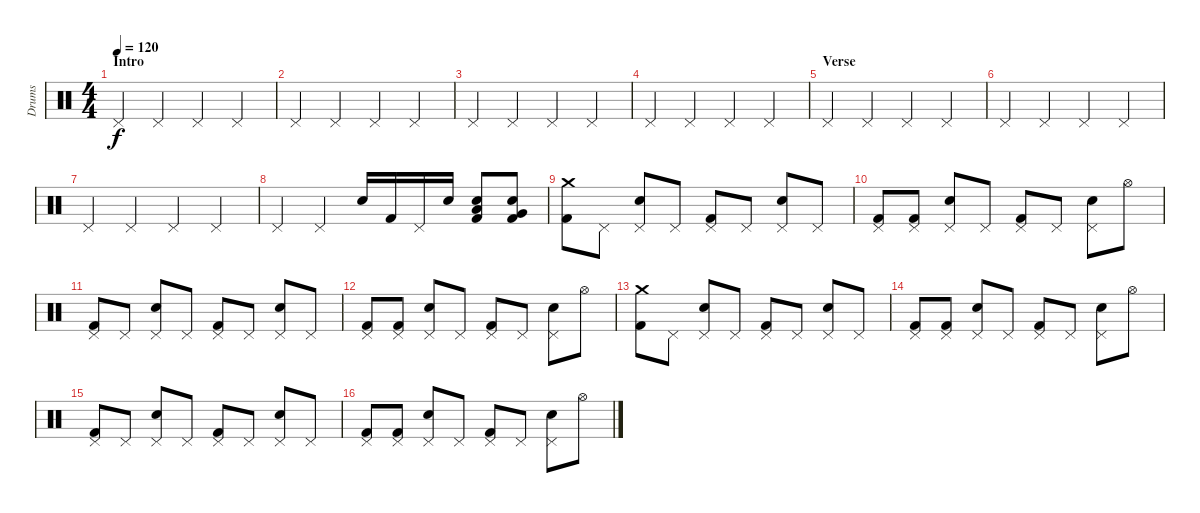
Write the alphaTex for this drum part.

\track ("Drums" "Drums") {instrument percussion}
\staff {score}
\articulation defaults
\ts (4 4)
\section ("" "Intro")
\tempo 120
\clef neutral
\ks c "Pedal Hi-Hat (hit)".4{dy f} "Pedal Hi-Hat (hit)".4 "Pedal Hi-Hat (hit)".4 "Pedal Hi-Hat (hit)".4
|
"Pedal Hi-Hat (hit)".4 "Pedal Hi-Hat (hit)".4 "Pedal Hi-Hat (hit)".4 "Pedal Hi-Hat (hit)".4 |
"Pedal Hi-Hat (hit)".4 "Pedal Hi-Hat (hit)".4 "Pedal Hi-Hat (hit)".4 "Pedal Hi-Hat (hit)".4 |
"Pedal Hi-Hat (hit)".4 "Pedal Hi-Hat (hit)".4 "Pedal Hi-Hat (hit)".4 "Pedal Hi-Hat (hit)".4 |
\section ("" "Verse")
"Pedal Hi-Hat (hit)".4 "Pedal Hi-Hat (hit)".4 "Pedal Hi-Hat (hit)".4 "Pedal Hi-Hat (hit)".4 |
"Pedal Hi-Hat (hit)".4 "Pedal Hi-Hat (hit)".4 "Pedal Hi-Hat (hit)".4 "Pedal Hi-Hat (hit)".4 |
"Pedal Hi-Hat (hit)".4 "Pedal Hi-Hat (hit)".4 "Pedal Hi-Hat (hit)".4 "Pedal Hi-Hat (hit)".4 |
"Pedal Hi-Hat (hit)".4 "Pedal Hi-Hat (hit)".4 "Electric Snare (hit)".16 "Kick (hit) 2".16 "Pedal Hi-Hat (hit)".16 "Electric Snare (hit)".16 ("Electric Snare (hit)" "Low Tom (hit)" "Kick (hit) 2").8 ("Electric Snare (hit)" "Very Low Tom (hit)" "Kick (hit) 2").8 |
("Crash medium (hit)" "Kick (hit) 2").8 "Pedal Hi-Hat (hit)".8 ("Pedal Hi-Hat (hit)" "Electric Snare (hit)").8 "Pedal Hi-Hat (hit)".8 ("Pedal Hi-Hat (hit)" "Kick (hit) 2").8 "Pedal Hi-Hat (hit)".8 ("Pedal Hi-Hat (hit)" "Electric Snare (hit)").8 "Pedal Hi-Hat (hit)".8 |
("Pedal Hi-Hat (hit)" "Kick (hit) 2").8 ("Pedal Hi-Hat (hit)" "Kick (hit) 2").8 ("Pedal Hi-Hat (hit)" "Electric Snare (hit)").8 "Pedal Hi-Hat (hit)".8 ("Pedal Hi-Hat (hit)" "Kick (hit) 2").8 "Pedal Hi-Hat (hit)".8 ("Pedal Hi-Hat (hit)" "Electric Snare (hit)").8 "Hi-Hat (open)".8 |
("Pedal Hi-Hat (hit)" "Kick (hit) 2").8 "Pedal Hi-Hat (hit)".8 ("Pedal Hi-Hat (hit)" "Electric Snare (hit)").8 "Pedal Hi-Hat (hit)".8 ("Pedal Hi-Hat (hit)" "Kick (hit) 2").8 "Pedal Hi-Hat (hit)".8 ("Pedal Hi-Hat (hit)" "Electric Snare (hit)").8 "Pedal Hi-Hat (hit)".8 |
("Pedal Hi-Hat (hit)" "Kick (hit) 2").8 ("Pedal Hi-Hat (hit)" "Kick (hit) 2").8 ("Pedal Hi-Hat (hit)" "Electric Snare (hit)").8 "Pedal Hi-Hat (hit)".8 ("Pedal Hi-Hat (hit)" "Kick (hit) 2").8 "Pedal Hi-Hat (hit)".8 ("Pedal Hi-Hat (hit)" "Electric Snare (hit)").8 "Hi-Hat (open)".8 |
("Crash medium (hit)" "Kick (hit) 2").8 "Pedal Hi-Hat (hit)".8 ("Pedal Hi-Hat (hit)" "Electric Snare (hit)").8 "Pedal Hi-Hat (hit)".8 ("Pedal Hi-Hat (hit)" "Kick (hit) 2").8 "Pedal Hi-Hat (hit)".8 ("Pedal Hi-Hat (hit)" "Electric Snare (hit)").8 "Pedal Hi-Hat (hit)".8 |
("Pedal Hi-Hat (hit)" "Kick (hit) 2").8 ("Pedal Hi-Hat (hit)" "Kick (hit) 2").8 ("Pedal Hi-Hat (hit)" "Electric Snare (hit)").8 "Pedal Hi-Hat (hit)".8 ("Pedal Hi-Hat (hit)" "Kick (hit) 2").8 "Pedal Hi-Hat (hit)".8 ("Pedal Hi-Hat (hit)" "Electric Snare (hit)").8 "Hi-Hat (open)".8 |
("Pedal Hi-Hat (hit)" "Kick (hit) 2").8 "Pedal Hi-Hat (hit)".8 ("Pedal Hi-Hat (hit)" "Electric Snare (hit)").8 "Pedal Hi-Hat (hit)".8 ("Pedal Hi-Hat (hit)" "Kick (hit) 2").8 "Pedal Hi-Hat (hit)".8 ("Pedal Hi-Hat (hit)" "Electric Snare (hit)").8 "Pedal Hi-Hat (hit)".8 |
("Pedal Hi-Hat (hit)" "Kick (hit) 2").8 ("Pedal Hi-Hat (hit)" "Kick (hit) 2").8 ("Pedal Hi-Hat (hit)" "Electric Snare (hit)").8 "Pedal Hi-Hat (hit)".8 ("Pedal Hi-Hat (hit)" "Kick (hit) 2").8 "Pedal Hi-Hat (hit)".8 ("Pedal Hi-Hat (hit)" "Electric Snare (hit)").8 "Hi-Hat (open)".8
